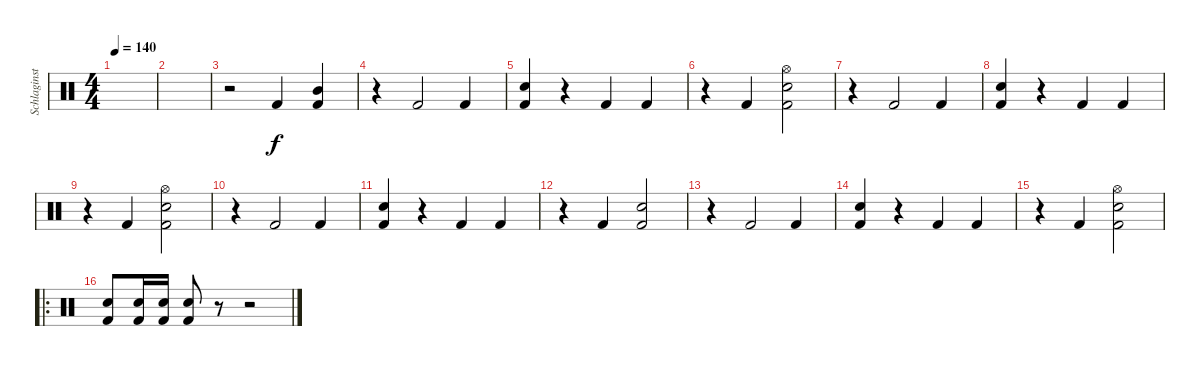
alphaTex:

\track ("Schlaginstrumente - Auswahl" "Schlaginst") {instrument percussion}
\staff {score}
\articulation defaults
\ts (4 4)
\tempo 140
\clef neutral
\ks c
|
|
r.2 "Kick (hit) 2".4 ("Kick (hit) 2" "Mid Tom (hit)").4 |
r.4 "Kick (hit) 2".2 "Kick (hit) 2".4 |
("Kick (hit) 2" "Snare (hit) 2").4 r.4 "Kick (hit) 2".4 "Kick (hit) 2".4 |
r.4 "Kick (hit) 2".4 ("Kick (hit) 2" "Snare (hit) 2" "Hi-Hat (open)").2 |
r.4 "Kick (hit) 2".2 "Kick (hit) 2".4 |
("Kick (hit) 2" "Snare (hit) 2").4 r.4 "Kick (hit) 2".4 "Kick (hit) 2".4 |
r.4 "Kick (hit) 2".4 ("Kick (hit) 2" "Snare (hit) 2" "Hi-Hat (open)").2 |
r.4 "Kick (hit) 2".2 "Kick (hit) 2".4 |
("Kick (hit) 2" "Snare (hit) 2").4 r.4 "Kick (hit) 2".4 "Kick (hit) 2".4 |
r.4 "Kick (hit) 2".4 ("Kick (hit) 2" "Snare (hit) 2").2 |
r.4 "Kick (hit) 2".2 "Kick (hit) 2".4 |
("Kick (hit) 2" "Snare (hit) 2").4 r.4 "Kick (hit) 2".4 "Kick (hit) 2".4 |
r.4 "Kick (hit) 2".4 ("Kick (hit) 2" "Snare (hit) 2" "Hi-Hat (open)").2 |
\ro
("Snare (hit) 2" "Kick (hit) 2").8 ("Snare (hit) 2" "Kick (hit) 2").16 ("Snare (hit) 2" "Kick (hit) 2").16 ("Snare (hit) 2" "Kick (hit) 2").8 r.8 r.2
